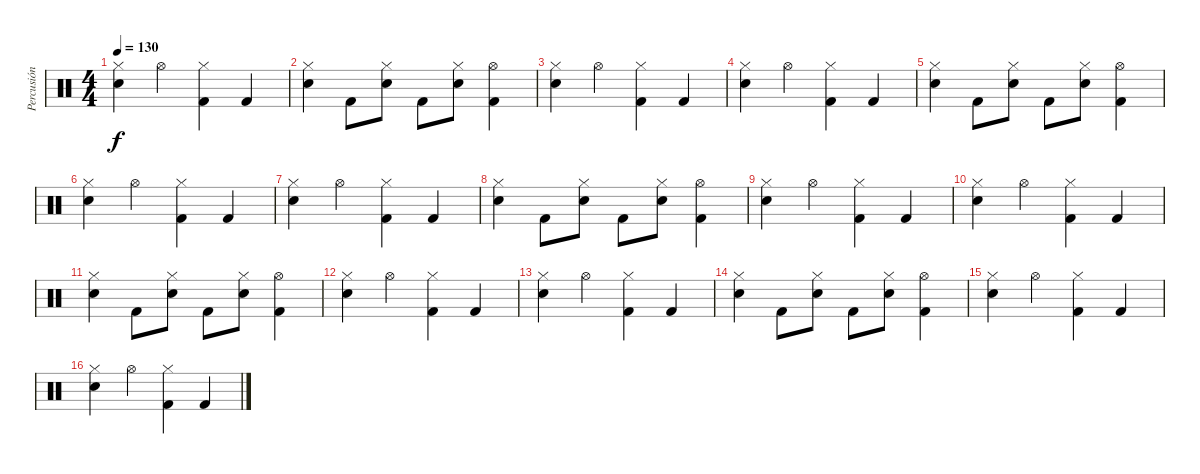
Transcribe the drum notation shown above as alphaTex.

\track ("Percusión" "Percusión") {instrument percussion}
\staff {score}
\articulation defaults
\ts (4 4)
\tempo 130
\clef neutral
\ks c
("Hi-Hat (closed)" "Electric Snare (hit)").4{dy f} "Hi-Hat (open)".4 ("Hi-Hat (closed)" "Kick (hit) 2").4 "Kick (hit) 2".4 |
("Hi-Hat (closed)" "Electric Snare (hit)").4 "Kick (hit) 2".8 ("Hi-Hat (closed)" "Electric Snare (hit)").8 "Kick (hit) 2".8 ("Hi-Hat (closed)" "Electric Snare (hit)").8 ("Hi-Hat (open)" "Kick (hit) 2").4 |
("Hi-Hat (closed)" "Electric Snare (hit)").4 "Hi-Hat (open)".4 ("Hi-Hat (closed)" "Kick (hit) 2").4 "Kick (hit) 2".4 |
("Hi-Hat (closed)" "Electric Snare (hit)").4 "Hi-Hat (open)".4 ("Hi-Hat (closed)" "Kick (hit) 2").4 "Kick (hit) 2".4 |
("Hi-Hat (closed)" "Electric Snare (hit)").4 "Kick (hit) 2".8 ("Hi-Hat (closed)" "Electric Snare (hit)").8 "Kick (hit) 2".8 ("Hi-Hat (closed)" "Electric Snare (hit)").8 ("Hi-Hat (open)" "Kick (hit) 2").4 |
("Hi-Hat (closed)" "Electric Snare (hit)").4 "Hi-Hat (open)".4 ("Hi-Hat (closed)" "Kick (hit) 2").4 "Kick (hit) 2".4 |
("Hi-Hat (closed)" "Electric Snare (hit)").4 "Hi-Hat (open)".4 ("Hi-Hat (closed)" "Kick (hit) 2").4 "Kick (hit) 2".4 |
("Hi-Hat (closed)" "Electric Snare (hit)").4 "Kick (hit) 2".8 ("Hi-Hat (closed)" "Electric Snare (hit)").8 "Kick (hit) 2".8 ("Hi-Hat (closed)" "Electric Snare (hit)").8 ("Hi-Hat (open)" "Kick (hit) 2").4 |
("Hi-Hat (closed)" "Electric Snare (hit)").4 "Hi-Hat (open)".4 ("Hi-Hat (closed)" "Kick (hit) 2").4 "Kick (hit) 2".4 |
("Hi-Hat (closed)" "Electric Snare (hit)").4 "Hi-Hat (open)".4 ("Hi-Hat (closed)" "Kick (hit) 2").4 "Kick (hit) 2".4 |
("Hi-Hat (closed)" "Electric Snare (hit)").4 "Kick (hit) 2".8 ("Hi-Hat (closed)" "Electric Snare (hit)").8 "Kick (hit) 2".8 ("Hi-Hat (closed)" "Electric Snare (hit)").8 ("Hi-Hat (open)" "Kick (hit) 2").4 |
("Hi-Hat (closed)" "Electric Snare (hit)").4 "Hi-Hat (open)".4 ("Hi-Hat (closed)" "Kick (hit) 2").4 "Kick (hit) 2".4 |
("Hi-Hat (closed)" "Electric Snare (hit)").4 "Hi-Hat (open)".4 ("Hi-Hat (closed)" "Kick (hit) 2").4 "Kick (hit) 2".4 |
("Hi-Hat (closed)" "Electric Snare (hit)").4 "Kick (hit) 2".8 ("Hi-Hat (closed)" "Electric Snare (hit)").8 "Kick (hit) 2".8 ("Hi-Hat (closed)" "Electric Snare (hit)").8 ("Hi-Hat (open)" "Kick (hit) 2").4 |
("Hi-Hat (closed)" "Electric Snare (hit)").4 "Hi-Hat (open)".4 ("Hi-Hat (closed)" "Kick (hit) 2").4 "Kick (hit) 2".4 |
("Hi-Hat (closed)" "Electric Snare (hit)").4 "Hi-Hat (open)".4 ("Hi-Hat (closed)" "Kick (hit) 2").4 "Kick (hit) 2".4
